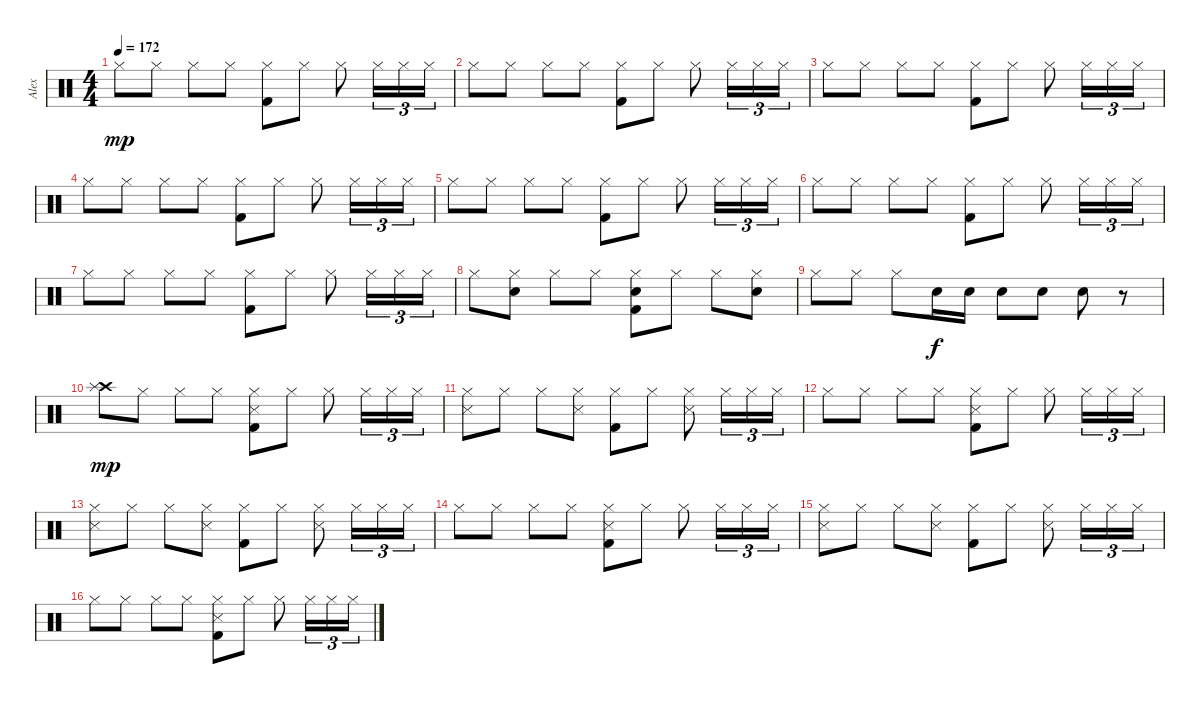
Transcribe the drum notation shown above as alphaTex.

\track ("Alex" "Alex") {instrument percussion}
\staff {score}
\articulation defaults
\ts (4 4)
\tempo 172
\clef neutral
\ks c "Hi-Hat (closed)".8{dy mp} "Hi-Hat (closed)".8 "Hi-Hat (closed)".8 "Hi-Hat (closed)".8
("Hi-Hat (closed)" "Kick (hit) 2").8 "Hi-Hat (closed)".8 "Hi-Hat (closed)".8 "Hi-Hat (closed)".16{tu (3 2)} "Hi-Hat (closed)".16{tu (3 2)} "Hi-Hat (closed)".16{tu (3 2)} |
"Hi-Hat (closed)".8 "Hi-Hat (closed)".8 "Hi-Hat (closed)".8 "Hi-Hat (closed)".8 ("Hi-Hat (closed)" "Kick (hit) 2").8 "Hi-Hat (closed)".8 "Hi-Hat (closed)".8 "Hi-Hat (closed)".16{tu (3 2)} "Hi-Hat (closed)".16{tu (3 2)} "Hi-Hat (closed)".16{tu (3 2)} |
"Hi-Hat (closed)".8 "Hi-Hat (closed)".8 "Hi-Hat (closed)".8 "Hi-Hat (closed)".8 ("Hi-Hat (closed)" "Kick (hit) 2").8 "Hi-Hat (closed)".8 "Hi-Hat (closed)".8 "Hi-Hat (closed)".16{tu (3 2)} "Hi-Hat (closed)".16{tu (3 2)} "Hi-Hat (closed)".16{tu (3 2)} |
"Hi-Hat (closed)".8 "Hi-Hat (closed)".8 "Hi-Hat (closed)".8 "Hi-Hat (closed)".8 ("Hi-Hat (closed)" "Kick (hit) 2").8 "Hi-Hat (closed)".8 "Hi-Hat (closed)".8 "Hi-Hat (closed)".16{tu (3 2)} "Hi-Hat (closed)".16{tu (3 2)} "Hi-Hat (closed)".16{tu (3 2)} |
"Hi-Hat (closed)".8 "Hi-Hat (closed)".8 "Hi-Hat (closed)".8 "Hi-Hat (closed)".8 ("Hi-Hat (closed)" "Kick (hit) 2").8 "Hi-Hat (closed)".8 "Hi-Hat (closed)".8 "Hi-Hat (closed)".16{tu (3 2)} "Hi-Hat (closed)".16{tu (3 2)} "Hi-Hat (closed)".16{tu (3 2)} |
"Hi-Hat (closed)".8 "Hi-Hat (closed)".8 "Hi-Hat (closed)".8 "Hi-Hat (closed)".8 ("Hi-Hat (closed)" "Kick (hit) 2").8 "Hi-Hat (closed)".8 "Hi-Hat (closed)".8 "Hi-Hat (closed)".16{tu (3 2)} "Hi-Hat (closed)".16{tu (3 2)} "Hi-Hat (closed)".16{tu (3 2)} |
"Hi-Hat (closed)".8 "Hi-Hat (closed)".8 "Hi-Hat (closed)".8 "Hi-Hat (closed)".8 ("Hi-Hat (closed)" "Kick (hit) 2").8 "Hi-Hat (closed)".8 "Hi-Hat (closed)".8 "Hi-Hat (closed)".16{tu (3 2)} "Hi-Hat (closed)".16{tu (3 2)} "Hi-Hat (closed)".16{tu (3 2)} |
"Hi-Hat (closed)".8 ("Hi-Hat (closed)" "Electric Snare (hit)").8 "Hi-Hat (closed)".8 "Hi-Hat (closed)".8 ("Hi-Hat (closed)" "Electric Snare (hit)" "Kick (hit) 2").8 "Hi-Hat (closed)".8 "Hi-Hat (closed)".8 ("Hi-Hat (closed)" "Electric Snare (hit)").8 |
"Hi-Hat (closed)".8 "Hi-Hat (closed)".8 "Hi-Hat (closed)".8 "Electric Snare (hit)".16{dy f} "Electric Snare (hit)".16 "Electric Snare (hit)".8 "Electric Snare (hit)".8 "Electric Snare (hit)".8 r.8 |
("Crash high (hit)" "Splash (hit)").8{dy mp} "Hi-Hat (closed)".8 "Hi-Hat (closed)".8 "Hi-Hat (closed)".8 ("Hi-Hat (closed)" "Snare (side stick) 3" "Kick (hit) 2").8 "Hi-Hat (closed)".8 "Hi-Hat (closed)".8 "Hi-Hat (closed)".16{tu (3 2)} "Hi-Hat (closed)".16{tu (3 2)} "Hi-Hat (closed)".16{tu (3 2)} |
("Hi-Hat (closed)" "Snare (side stick) 3").8 "Hi-Hat (closed)".8 "Hi-Hat (closed)".8 ("Hi-Hat (closed)" "Snare (side stick) 3").8 ("Hi-Hat (closed)" "Kick (hit) 2").8 "Hi-Hat (closed)".8 ("Hi-Hat (closed)" "Snare (side stick) 3").8 "Hi-Hat (closed)".16{tu (3 2)} "Hi-Hat (closed)".16{tu (3 2)} "Hi-Hat (closed)".16{tu (3 2)} |
"Hi-Hat (closed)".8 "Hi-Hat (closed)".8 "Hi-Hat (closed)".8 "Hi-Hat (closed)".8 ("Hi-Hat (closed)" "Snare (side stick) 3" "Kick (hit) 2").8 "Hi-Hat (closed)".8 "Hi-Hat (closed)".8 "Hi-Hat (closed)".16{tu (3 2)} "Hi-Hat (closed)".16{tu (3 2)} "Hi-Hat (closed)".16{tu (3 2)} |
("Hi-Hat (closed)" "Snare (side stick) 3").8 "Hi-Hat (closed)".8 "Hi-Hat (closed)".8 ("Hi-Hat (closed)" "Snare (side stick) 3").8 ("Hi-Hat (closed)" "Kick (hit) 2").8 "Hi-Hat (closed)".8 ("Hi-Hat (closed)" "Snare (side stick) 3").8 "Hi-Hat (closed)".16{tu (3 2)} "Hi-Hat (closed)".16{tu (3 2)} "Hi-Hat (closed)".16{tu (3 2)} |
"Hi-Hat (closed)".8 "Hi-Hat (closed)".8 "Hi-Hat (closed)".8 "Hi-Hat (closed)".8 ("Hi-Hat (closed)" "Snare (side stick) 3" "Kick (hit) 2").8 "Hi-Hat (closed)".8 "Hi-Hat (closed)".8 "Hi-Hat (closed)".16{tu (3 2)} "Hi-Hat (closed)".16{tu (3 2)} "Hi-Hat (closed)".16{tu (3 2)} |
("Hi-Hat (closed)" "Snare (side stick) 3").8 "Hi-Hat (closed)".8 "Hi-Hat (closed)".8 ("Hi-Hat (closed)" "Snare (side stick) 3").8 ("Hi-Hat (closed)" "Kick (hit) 2").8 "Hi-Hat (closed)".8 ("Hi-Hat (closed)" "Snare (side stick) 3").8 "Hi-Hat (closed)".16{tu (3 2)} "Hi-Hat (closed)".16{tu (3 2)} "Hi-Hat (closed)".16{tu (3 2)} |
"Hi-Hat (closed)".8 "Hi-Hat (closed)".8 "Hi-Hat (closed)".8 "Hi-Hat (closed)".8 ("Hi-Hat (closed)" "Snare (side stick) 3" "Kick (hit) 2").8 "Hi-Hat (closed)".8 "Hi-Hat (closed)".8 "Hi-Hat (closed)".16{tu (3 2)} "Hi-Hat (closed)".16{tu (3 2)} "Hi-Hat (closed)".16{tu (3 2)}
